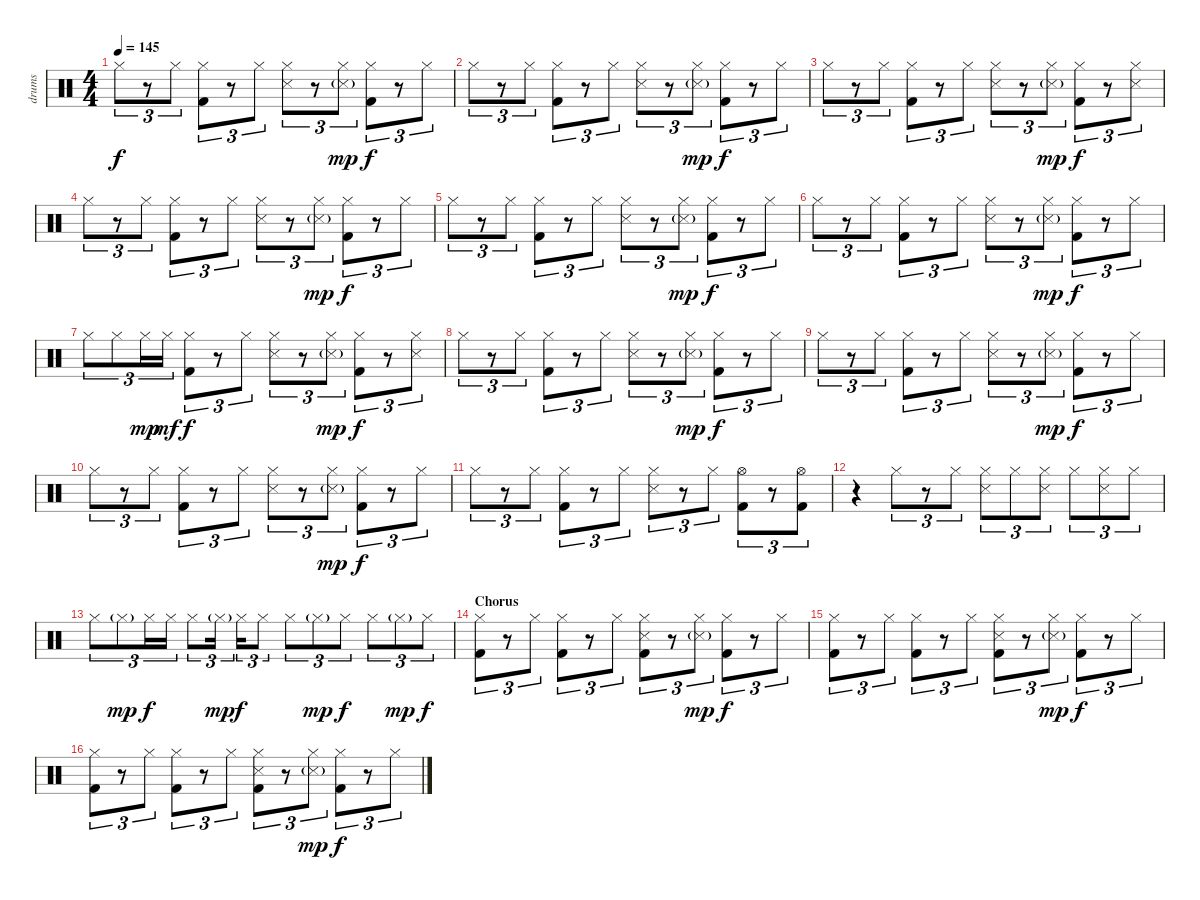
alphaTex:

\track ("drums" "drums") {instrument percussion}
\staff {score}
\articulation defaults
\ts (4 4)
\tempo 145
\clef neutral
\ks c "Hi-Hat (closed)".8{tu (3 2) dy f}
r.8{tu (3 2)} "Hi-Hat (closed)".8{tu (3 2)} ("Hi-Hat (closed)" "Kick (hit) 2").8{tu (3 2)} r.8{tu (3 2)} "Hi-Hat (closed)".8{tu (3 2)} ("Hi-Hat (closed)" "Snare (side stick) 3").8{tu (3 2)} r.8{tu (3 2)} ("Hi-Hat (closed)" "Snare (side stick) 3"{g}).8{tu (3 2) dy mp} ("Hi-Hat (closed)" "Kick (hit) 2").8{tu (3 2) dy f} r.8{tu (3 2)} "Hi-Hat (closed)".8{tu (3 2)} |
"Hi-Hat (closed)".8{tu (3 2)} r.8{tu (3 2)} "Hi-Hat (closed)".8{tu (3 2)} ("Hi-Hat (closed)" "Kick (hit) 2").8{tu (3 2)} r.8{tu (3 2)} "Hi-Hat (closed)".8{tu (3 2)} ("Hi-Hat (closed)" "Snare (side stick) 3").8{tu (3 2)} r.8{tu (3 2)} ("Hi-Hat (closed)" "Snare (side stick) 3"{g}).8{tu (3 2) dy mp} ("Hi-Hat (closed)" "Kick (hit) 2").8{tu (3 2) dy f} r.8{tu (3 2)} "Hi-Hat (closed)".8{tu (3 2)} |
"Hi-Hat (closed)".8{tu (3 2)} r.8{tu (3 2)} "Hi-Hat (closed)".8{tu (3 2)} ("Hi-Hat (closed)" "Kick (hit) 2").8{tu (3 2)} r.8{tu (3 2)} "Hi-Hat (closed)".8{tu (3 2)} ("Hi-Hat (closed)" "Snare (side stick) 3").8{tu (3 2)} r.8{tu (3 2)} ("Hi-Hat (closed)" "Snare (side stick) 3"{g}).8{tu (3 2) dy mp} ("Hi-Hat (closed)" "Kick (hit) 2").8{tu (3 2) dy f} r.8{tu (3 2)} ("Hi-Hat (closed)" "Snare (side stick) 3").8{tu (3 2)} |
"Hi-Hat (closed)".8{tu (3 2)} r.8{tu (3 2)} "Hi-Hat (closed)".8{tu (3 2)} ("Hi-Hat (closed)" "Kick (hit) 2").8{tu (3 2)} r.8{tu (3 2)} "Hi-Hat (closed)".8{tu (3 2)} ("Hi-Hat (closed)" "Snare (side stick) 3").8{tu (3 2)} r.8{tu (3 2)} ("Hi-Hat (closed)" "Snare (side stick) 3"{g}).8{tu (3 2) dy mp} ("Hi-Hat (closed)" "Kick (hit) 2").8{tu (3 2) dy f} r.8{tu (3 2)} "Hi-Hat (closed)".8{tu (3 2)} |
"Hi-Hat (closed)".8{tu (3 2)} r.8{tu (3 2)} "Hi-Hat (closed)".8{tu (3 2)} ("Hi-Hat (closed)" "Kick (hit) 2").8{tu (3 2)} r.8{tu (3 2)} "Hi-Hat (closed)".8{tu (3 2)} ("Hi-Hat (closed)" "Snare (side stick) 3").8{tu (3 2)} r.8{tu (3 2)} ("Hi-Hat (closed)" "Snare (side stick) 3"{g}).8{tu (3 2) dy mp} ("Hi-Hat (closed)" "Kick (hit) 2").8{tu (3 2) dy f} r.8{tu (3 2)} "Hi-Hat (closed)".8{tu (3 2)} |
"Hi-Hat (closed)".8{tu (3 2)} r.8{tu (3 2)} "Hi-Hat (closed)".8{tu (3 2)} ("Hi-Hat (closed)" "Kick (hit) 2").8{tu (3 2)} r.8{tu (3 2)} "Hi-Hat (closed)".8{tu (3 2)} ("Hi-Hat (closed)" "Snare (side stick) 3").8{tu (3 2)} r.8{tu (3 2)} ("Hi-Hat (closed)" "Snare (side stick) 3"{g}).8{tu (3 2) dy mp} ("Hi-Hat (closed)" "Kick (hit) 2").8{tu (3 2) dy f} r.8{tu (3 2)} "Hi-Hat (closed)".8{tu (3 2)} |
"Hi-Hat (closed)".8{tu (3 2)} "Hi-Hat (closed)".8{tu (3 2)} "Hi-Hat (closed)".16{tu (3 2) dy mp} "Hi-Hat (closed)".16{tu (3 2) dy mf} ("Hi-Hat (closed)" "Kick (hit) 2").8{tu (3 2) dy f} r.8{tu (3 2)} "Hi-Hat (closed)".8{tu (3 2)} ("Hi-Hat (closed)" "Snare (side stick) 3").8{tu (3 2)} r.8{tu (3 2)} ("Hi-Hat (closed)" "Snare (side stick) 3"{g}).8{tu (3 2) dy mp} ("Hi-Hat (closed)" "Kick (hit) 2").8{tu (3 2) dy f} r.8{tu (3 2)} ("Hi-Hat (closed)" "Snare (side stick) 3").8{tu (3 2)} |
"Hi-Hat (closed)".8{tu (3 2)} r.8{tu (3 2)} "Hi-Hat (closed)".8{tu (3 2)} ("Hi-Hat (closed)" "Kick (hit) 2").8{tu (3 2)} r.8{tu (3 2)} "Hi-Hat (closed)".8{tu (3 2)} ("Hi-Hat (closed)" "Snare (side stick) 3").8{tu (3 2)} r.8{tu (3 2)} ("Hi-Hat (closed)" "Snare (side stick) 3"{g}).8{tu (3 2) dy mp} ("Hi-Hat (closed)" "Kick (hit) 2").8{tu (3 2) dy f} r.8{tu (3 2)} "Hi-Hat (closed)".8{tu (3 2)} |
"Hi-Hat (closed)".8{tu (3 2)} r.8{tu (3 2)} "Hi-Hat (closed)".8{tu (3 2)} ("Hi-Hat (closed)" "Kick (hit) 2").8{tu (3 2)} r.8{tu (3 2)} "Hi-Hat (closed)".8{tu (3 2)} ("Hi-Hat (closed)" "Snare (side stick) 3").8{tu (3 2)} r.8{tu (3 2)} ("Hi-Hat (closed)" "Snare (side stick) 3"{g}).8{tu (3 2) dy mp} ("Hi-Hat (closed)" "Kick (hit) 2").8{tu (3 2) dy f} r.8{tu (3 2)} "Hi-Hat (closed)".8{tu (3 2)} |
"Hi-Hat (closed)".8{tu (3 2)} r.8{tu (3 2)} "Hi-Hat (closed)".8{tu (3 2)} ("Hi-Hat (closed)" "Kick (hit) 2").8{tu (3 2)} r.8{tu (3 2)} "Hi-Hat (closed)".8{tu (3 2)} ("Hi-Hat (closed)" "Snare (side stick) 3").8{tu (3 2)} r.8{tu (3 2)} ("Hi-Hat (closed)" "Snare (side stick) 3"{g}).8{tu (3 2) dy mp} ("Hi-Hat (closed)" "Kick (hit) 2").8{tu (3 2) dy f} r.8{tu (3 2)} "Hi-Hat (closed)".8{tu (3 2)} |
"Hi-Hat (closed)".8{tu (3 2)} r.8{tu (3 2)} "Hi-Hat (closed)".8{tu (3 2)} ("Hi-Hat (closed)" "Kick (hit) 2").8{tu (3 2)} r.8{tu (3 2)} "Hi-Hat (closed)".8{tu (3 2)} ("Hi-Hat (closed)" "Snare (side stick) 3").8{tu (3 2)} r.8{tu (3 2)} "Hi-Hat (closed)".8{tu (3 2)} ("Hi-Hat (open)" "Kick (hit) 2").8{tu (3 2)} r.8{tu (3 2)} ("Hi-Hat (open)" "Kick (hit) 2").8{tu (3 2)} |
r.4 "Hi-Hat (closed)".8{tu (3 2)} r.8{tu (3 2)} "Hi-Hat (closed)".8{tu (3 2)} ("Hi-Hat (closed)" "Snare (side stick) 3").8{tu (3 2)} "Hi-Hat (closed)".8{tu (3 2)} ("Hi-Hat (closed)" "Snare (side stick) 3").8{tu (3 2)} "Hi-Hat (closed)".8{tu (3 2)} ("Hi-Hat (closed)" "Snare (side stick) 3").8{tu (3 2)} "Hi-Hat (closed)".8{tu (3 2)} |
"Hi-Hat (closed)".8{tu (3 2)} "Hi-Hat (closed)"{g}.8{tu (3 2) dy mp} "Hi-Hat (closed)".16{tu (3 2) dy f} "Hi-Hat (closed)".16{tu (3 2)} "Hi-Hat (closed)".8{tu (3 2)} "Hi-Hat (closed)"{g}.16{tu (3 2) dy mp} "Hi-Hat (closed)".16{tu (3 2) dy f} "Hi-Hat (closed)".8{tu (3 2)} "Hi-Hat (closed)".8{tu (3 2)} "Hi-Hat (closed)"{g}.8{tu (3 2) dy mp} "Hi-Hat (closed)".8{tu (3 2) dy f} "Hi-Hat (closed)".8{tu (3 2)} "Hi-Hat (closed)"{g}.8{tu (3 2) dy mp} "Hi-Hat (closed)".8{tu (3 2) dy f} |
\section ("" "Chorus")
("Hi-Hat (closed)" "Kick (hit) 2").8{tu (3 2)} r.8{tu (3 2)} "Hi-Hat (closed)".8{tu (3 2)} ("Hi-Hat (closed)" "Kick (hit) 2").8{tu (3 2)} r.8{tu (3 2)} "Hi-Hat (closed)".8{tu (3 2)} ("Hi-Hat (closed)" "Snare (side stick) 3" "Kick (hit) 2").8{tu (3 2)} r.8{tu (3 2)} ("Hi-Hat (closed)" "Snare (side stick) 3"{g}).8{tu (3 2) dy mp} ("Hi-Hat (closed)" "Kick (hit) 2").8{tu (3 2) dy f} r.8{tu (3 2)} "Hi-Hat (closed)".8{tu (3 2)} |
("Hi-Hat (closed)" "Kick (hit) 2").8{tu (3 2)} r.8{tu (3 2)} "Hi-Hat (closed)".8{tu (3 2)} ("Hi-Hat (closed)" "Kick (hit) 2").8{tu (3 2)} r.8{tu (3 2)} "Hi-Hat (closed)".8{tu (3 2)} ("Hi-Hat (closed)" "Snare (side stick) 3" "Kick (hit) 2").8{tu (3 2)} r.8{tu (3 2)} ("Hi-Hat (closed)" "Snare (side stick) 3"{g}).8{tu (3 2) dy mp} ("Hi-Hat (closed)" "Kick (hit) 2").8{tu (3 2) dy f} r.8{tu (3 2)} "Hi-Hat (closed)".8{tu (3 2)} |
("Hi-Hat (closed)" "Kick (hit) 2").8{tu (3 2)} r.8{tu (3 2)} "Hi-Hat (closed)".8{tu (3 2)} ("Hi-Hat (closed)" "Kick (hit) 2").8{tu (3 2)} r.8{tu (3 2)} "Hi-Hat (closed)".8{tu (3 2)} ("Hi-Hat (closed)" "Snare (side stick) 3" "Kick (hit) 2").8{tu (3 2)} r.8{tu (3 2)} ("Hi-Hat (closed)" "Snare (side stick) 3"{g}).8{tu (3 2) dy mp} ("Hi-Hat (closed)" "Kick (hit) 2").8{tu (3 2) dy f} r.8{tu (3 2)} "Hi-Hat (closed)".8{tu (3 2)}
